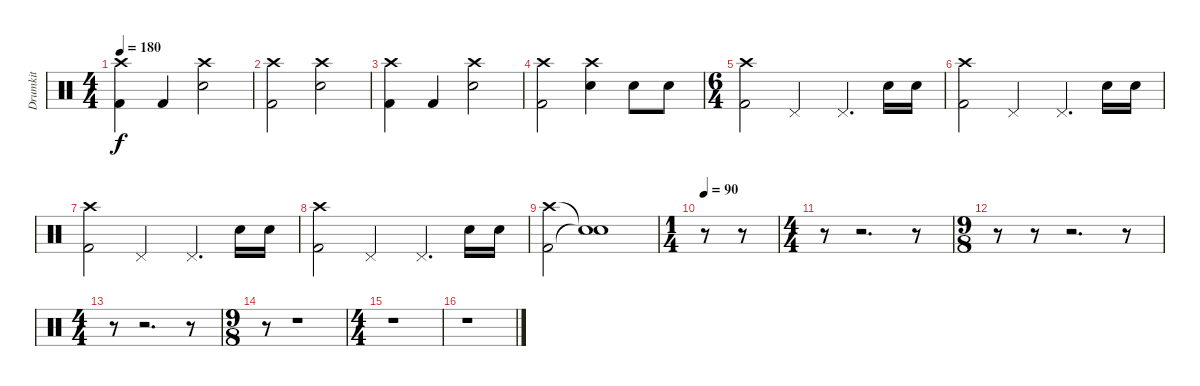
\track ("Drumkit" "Drumkit") {instrument percussion}
\staff {score}
\articulation defaults
\ts (4 4)
\tempo 180
\clef neutral
\ks c
("Crash high (hit)" "Kick (hit) 2").4{dy f} "Kick (hit) 2".4 ("Crash high (hit)" "Electric Snare (hit)").2 |
("Crash high (hit)" "Kick (hit) 2").2 ("Crash high (hit)" "Electric Snare (hit)").2 |
("Crash high (hit)" "Kick (hit) 2").4 "Kick (hit) 2".4 ("Crash high (hit)" "Electric Snare (hit)").2 |
("Crash high (hit)" "Kick (hit) 2").2 ("Crash high (hit)" "Electric Snare (hit)").4 "Electric Snare (hit)".8 "Electric Snare (hit)".8 |
\ts (6 4)
("Crash high (hit)" "Kick (hit) 2").2 "Pedal Hi-Hat (hit)".2 "Pedal Hi-Hat (hit)".4{d} "Electric Snare (hit)".16 "Electric Snare (hit)".16 |
("Crash high (hit)" "Kick (hit) 2").2 "Pedal Hi-Hat (hit)".2 "Pedal Hi-Hat (hit)".4{d} "Electric Snare (hit)".16 "Electric Snare (hit)".16 |
("Crash high (hit)" "Kick (hit) 2").2 "Pedal Hi-Hat (hit)".2 "Pedal Hi-Hat (hit)".4{d} "Electric Snare (hit)".16 "Electric Snare (hit)".16 |
("Crash high (hit)" "Kick (hit) 2").2 "Pedal Hi-Hat (hit)".2 "Pedal Hi-Hat (hit)".4{d} "Electric Snare (hit)".16 "Electric Snare (hit)".16 |
("Crash high (hit)" "Kick (hit) 2").2 ("Snare (hit)"{t} "Snare (hit)"{t}).1 |
\ts (1 4)
\tempo 90
r.8 r.8 |
\ts (4 4)
r.8 r.2{d} r.8 |
\ts (9 8)
r.8 r.8 r.2{d} r.8 |
\ts (4 4)
r.8 r.2{d} r.8 |
\ts (9 8)
r.8 r.1 |
\ts (4 4)
r.1 |
r.1
